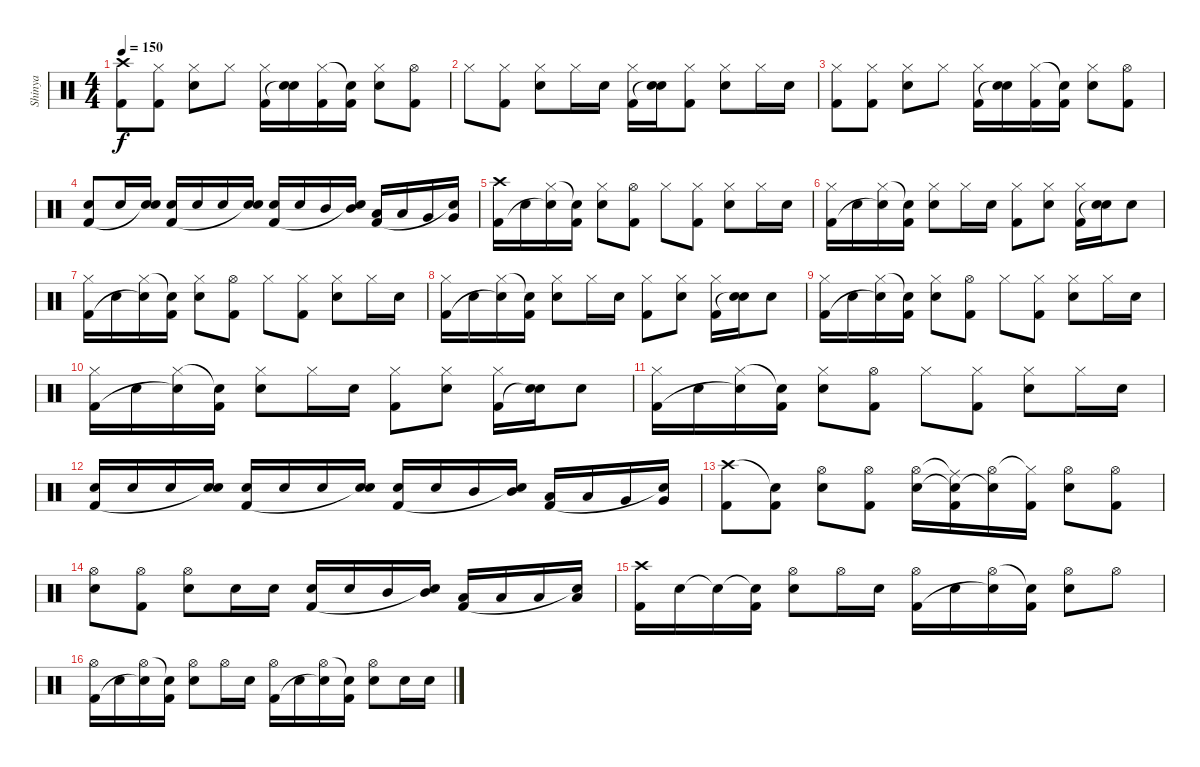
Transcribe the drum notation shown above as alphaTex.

\track ("Shinya" "Shinya") {instrument percussion}
\staff {score}
\articulation defaults
\ts (4 4)
\tempo 150
\clef neutral
\ks c
("Crash high (hit)" "Kick (hit) 2").8{dy f} ("Hi-Hat (closed)" "Kick (hit) 2").8 ("Hi-Hat (closed)" "Electric Snare (hit)").8 "Hi-Hat (closed)".8 ("Hi-Hat (closed)" "Kick (hit) 2").16 ("Electric Snare (hit)" "Snare (hit)"{t}).16 ("Hi-Hat (closed)" "Kick (hit) 2").16 ("Snare (hit)"{t} "Kick (hit) 2").16 ("Hi-Hat (closed)" "Electric Snare (hit)").8 ("Hi-Hat (open)" "Kick (hit) 2").8 |
"Hi-Hat (closed)".8 ("Hi-Hat (closed)" "Kick (hit) 2").8 ("Hi-Hat (closed)" "Electric Snare (hit)").8 "Hi-Hat (closed)".16 "Electric Snare (hit)".16 ("Hi-Hat (closed)" "Kick (hit) 2").16 ("Electric Snare (hit)" "Snare (hit)"{t}).16 ("Hi-Hat (closed)" "Kick (hit) 2").8 ("Hi-Hat (closed)" "Electric Snare (hit)").8 "Hi-Hat (closed)".16 "Electric Snare (hit)".16 |
("Hi-Hat (closed)" "Kick (hit) 2").8 ("Hi-Hat (closed)" "Kick (hit) 2").8 ("Hi-Hat (closed)" "Electric Snare (hit)").8 "Hi-Hat (closed)".8 ("Hi-Hat (closed)" "Kick (hit) 2").16 ("Electric Snare (hit)" "Snare (hit)"{t}).16 ("Hi-Hat (closed)" "Kick (hit) 2").16 ("Snare (hit)"{t} "Kick (hit) 2").16 ("Hi-Hat (closed)" "Electric Snare (hit)").8 ("Hi-Hat (open)" "Kick (hit) 2").8 |
("Electric Snare (hit)" "Kick (hit) 2").8 "Electric Snare (hit)".16 ("Electric Snare (hit)" "Snare (hit)"{t}).16 ("Electric Snare (hit)" "Kick (hit) 2").16 "Electric Snare (hit)".16 "Electric Snare (hit)".16 ("Electric Snare (hit)" "Snare (hit)"{t}).16 ("Electric Snare (hit)" "Kick (hit) 2").16 "Electric Snare (hit)".16 "Mid Tom (hit)".16 ("Mid Tom (hit)" "Snare (hit)"{t}).16 ("Low Tom (hit)" "Kick (hit) 2").16 "Low Tom (hit)".16 "Very Low Tom (hit)".16 ("Very Low Tom (hit)" "Snare (hit)"{t}).16 |
("Crash high (hit)" "Kick (hit) 2").16 "Electric Snare (hit)".16 ("Hi-Hat (closed)" "Snare (hit)"{t}).16 ("Snare (hit)"{t} "Kick (hit) 2").16 ("Hi-Hat (closed)" "Electric Snare (hit)").8 ("Hi-Hat (open)" "Kick (hit) 2").8 "Hi-Hat (closed)".8 ("Hi-Hat (closed)" "Kick (hit) 2").8 ("Hi-Hat (closed)" "Electric Snare (hit)").8 "Hi-Hat (closed)".16 "Electric Snare (hit)".16 |
("Hi-Hat (closed)" "Kick (hit) 2").16 "Electric Snare (hit)".16 ("Hi-Hat (closed)" "Snare (hit)"{t}).16 ("Snare (hit)"{t} "Kick (hit) 2").16 ("Hi-Hat (closed)" "Electric Snare (hit)").8 "Hi-Hat (closed)".16 "Electric Snare (hit)".16 ("Hi-Hat (closed)" "Kick (hit) 2").8 ("Hi-Hat (closed)" "Electric Snare (hit)").8 ("Hi-Hat (closed)" "Kick (hit) 2").16 ("Electric Snare (hit)" "Snare (hit)"{t}).16 "Electric Snare (hit)".8 |
("Hi-Hat (closed)" "Kick (hit) 2").16 "Electric Snare (hit)".16 ("Hi-Hat (closed)" "Snare (hit)"{t}).16 ("Snare (hit)"{t} "Kick (hit) 2").16 ("Hi-Hat (closed)" "Electric Snare (hit)").8 ("Hi-Hat (open)" "Kick (hit) 2").8 "Hi-Hat (closed)".8 ("Hi-Hat (closed)" "Kick (hit) 2").8 ("Hi-Hat (closed)" "Electric Snare (hit)").8 "Hi-Hat (closed)".16 "Electric Snare (hit)".16 |
("Hi-Hat (closed)" "Kick (hit) 2").16 "Electric Snare (hit)".16 ("Hi-Hat (closed)" "Snare (hit)"{t}).16 ("Snare (hit)"{t} "Kick (hit) 2").16 ("Hi-Hat (closed)" "Electric Snare (hit)").8 "Hi-Hat (closed)".16 "Electric Snare (hit)".16 ("Hi-Hat (closed)" "Kick (hit) 2").8 ("Hi-Hat (closed)" "Electric Snare (hit)").8 ("Hi-Hat (closed)" "Kick (hit) 2").16 ("Electric Snare (hit)" "Snare (hit)"{t}).16 "Electric Snare (hit)".8 |
("Hi-Hat (closed)" "Kick (hit) 2").16 "Electric Snare (hit)".16 ("Hi-Hat (closed)" "Snare (hit)"{t}).16 ("Snare (hit)"{t} "Kick (hit) 2").16 ("Hi-Hat (closed)" "Electric Snare (hit)").8 ("Hi-Hat (open)" "Kick (hit) 2").8 "Hi-Hat (closed)".8 ("Hi-Hat (closed)" "Kick (hit) 2").8 ("Hi-Hat (closed)" "Electric Snare (hit)").8 "Hi-Hat (closed)".16 "Electric Snare (hit)".16 |
("Hi-Hat (closed)" "Kick (hit) 2").16 "Electric Snare (hit)".16 ("Hi-Hat (closed)" "Snare (hit)"{t}).16 ("Snare (hit)"{t} "Kick (hit) 2").16 ("Hi-Hat (closed)" "Electric Snare (hit)").8 "Hi-Hat (closed)".16 "Electric Snare (hit)".16 ("Hi-Hat (closed)" "Kick (hit) 2").8 ("Hi-Hat (closed)" "Electric Snare (hit)").8 ("Hi-Hat (closed)" "Kick (hit) 2").16 ("Electric Snare (hit)" "Snare (hit)"{t}).16 "Electric Snare (hit)".8 |
("Hi-Hat (closed)" "Kick (hit) 2").16 "Electric Snare (hit)".16 ("Hi-Hat (closed)" "Snare (hit)"{t}).16 ("Snare (hit)"{t} "Kick (hit) 2").16 ("Hi-Hat (closed)" "Electric Snare (hit)").8 ("Hi-Hat (open)" "Kick (hit) 2").8 "Hi-Hat (closed)".8 ("Hi-Hat (closed)" "Kick (hit) 2").8 ("Hi-Hat (closed)" "Electric Snare (hit)").8 "Hi-Hat (closed)".16 "Electric Snare (hit)".16 |
("Electric Snare (hit)" "Kick (hit) 2").16 "Electric Snare (hit)".16 "Electric Snare (hit)".16 ("Electric Snare (hit)" "Snare (hit)"{t}).16 ("Electric Snare (hit)" "Kick (hit) 2").16 "Electric Snare (hit)".16 "Electric Snare (hit)".16 ("Electric Snare (hit)" "Snare (hit)"{t}).16 ("Electric Snare (hit)" "Kick (hit) 2").16 "Electric Snare (hit)".16 "Mid Tom (hit)".16 ("Mid Tom (hit)" "Snare (hit)"{t}).16 ("Low Tom (hit)" "Kick (hit) 2").16 "Low Tom (hit)".16 "Very Low Tom (hit)".16 ("Very Low Tom (hit)" "Snare (hit)"{t}).16 |
("Crash high (hit)" "Kick (hit) 2").8 ("Snare (hit)"{t} "Kick (hit) 2").8 ("Hi-Hat (open)" "Electric Snare (hit)").8 ("Hi-Hat (open)" "Kick (hit) 2").8 ("Hi-Hat (open)" "Electric Snare (hit)").16 ("Ride (middle)"{t} "Snare (hit)"{t} "Kick (hit) 2").16 ("Hi-Hat (open)" "Snare (hit)"{t}).16 ("Hi-Hat (closed)"{t} "Kick (hit) 2").16 ("Hi-Hat (open)" "Electric Snare (hit)").8 ("Hi-Hat (open)" "Kick (hit) 2").8 |
("Hi-Hat (open)" "Electric Snare (hit)").8 ("Hi-Hat (open)" "Kick (hit) 2").8 ("Hi-Hat (open)" "Electric Snare (hit)").8 "Electric Snare (hit)".16 "Electric Snare (hit)".16 ("Electric Snare (hit)" "Kick (hit) 2").16 "Electric Snare (hit)".16 "Mid Tom (hit)".16 ("Mid Tom (hit)" "Snare (hit)"{t}).16 ("Low Tom (hit)" "Kick (hit) 2").16 "Low Tom (hit)".16 "Low Floor Tom (hit)".16 ("Low Floor Tom (hit)" "Snare (hit)"{t}).16 |
("Crash high (hit)" "Kick (hit) 2").16 "Electric Snare (hit)".16 "Snare (hit)"{t}.16 ("Snare (hit)"{t} "Kick (hit) 2").16 ("Hi-Hat (open)" "Electric Snare (hit)").8 "Hi-Hat (open)".16 "Electric Snare (hit)".16 ("Hi-Hat (open)" "Kick (hit) 2").16 "Electric Snare (hit)".16 ("Hi-Hat (open)" "Snare (hit)"{t}).16 ("Snare (hit)"{t} "Kick (hit) 2").16 ("Hi-Hat (open)" "Electric Snare (hit)").8 "Hi-Hat (open)".8 |
("Hi-Hat (open)" "Kick (hit) 2").16 "Electric Snare (hit)".16 ("Hi-Hat (open)" "Snare (hit)"{t}).16 ("Snare (hit)"{t} "Kick (hit) 2").16 ("Hi-Hat (open)" "Electric Snare (hit)").8 "Hi-Hat (open)".16 "Electric Snare (hit)".16 ("Hi-Hat (open)" "Kick (hit) 2").16 "Electric Snare (hit)".16 ("Hi-Hat (open)" "Snare (hit)"{t}).16 ("Snare (hit)"{t} "Kick (hit) 2").16 ("Hi-Hat (open)" "Electric Snare (hit)").8 "Electric Snare (hit)".16 "Electric Snare (hit)".16
